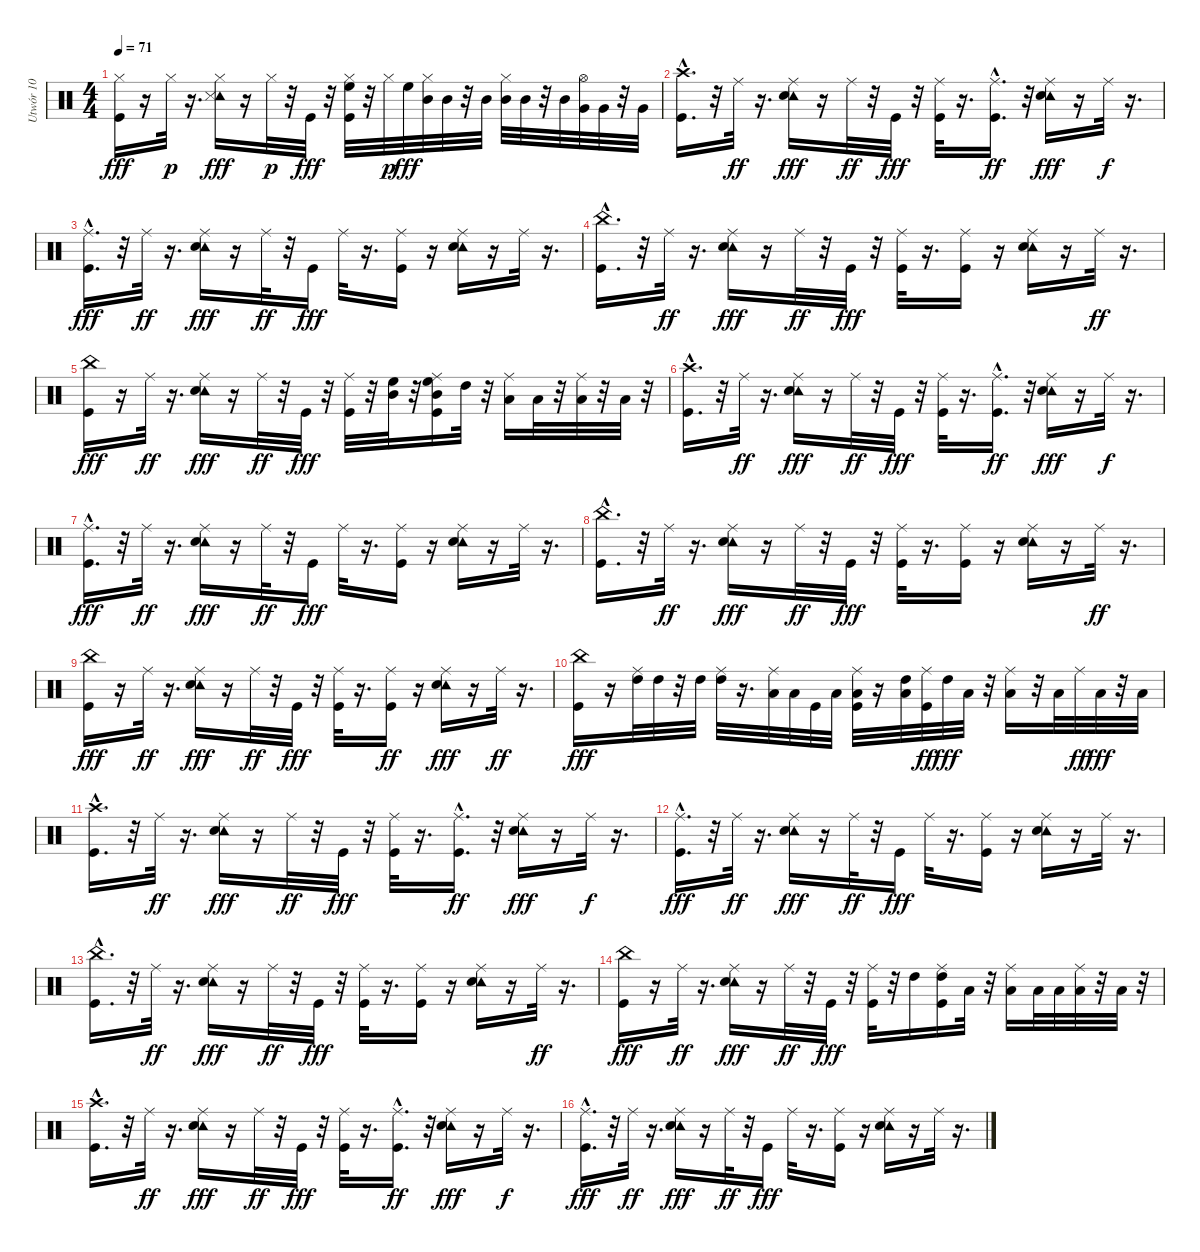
\track ("Utwór 10" "Utwór 10") {instrument percussion}
\staff {score}
\articulation defaults
\ts (4 4)
\tempo 71
\clef neutral
\ks c
("Kick (hit)" "Hi-Hat (closed)").16{dy fff} r.16 "Hi-Hat (closed)".32{dy p} r.16{d} ("Hi-Hat (closed)" "Tambourine (hit)" "Snare (side stick) 3").16{dy fff} r.16 "Hi-Hat (closed)".32{dy p} r.32 "Kick (hit)".32{dy fff} r.32 ("Kick (hit)" "Hi-Hat (closed)" "High Floor Tom (hit)").32 r.32 "Hi-Hat (closed)".32{dy p} "High Floor Tom (hit)".32{dy fff} ("Hi-Hat (closed)" "Mid Tom (hit)").32 "Mid Tom (hit)".32 r.32 "Mid Tom (hit)".32 ("Hi-Hat (closed)" "Mid Tom (hit)").32 "Mid Tom (hit)".32 r.32 "Mid Tom (hit)".32 ("Hi-Hat (open)" "Very Low Tom (hit)").32 "Very Low Tom (hit)".32 r.32 "Very Low Tom (hit)".32 |
("Kick (hit)"{hac} "Crash high (hit)").16{d} r.32 "Ride (middle)".32{dy ff} r.16{d} ("Ride (middle)" "Tambourine (hit)" "Snare (hit) 2").16{dy fff} r.16 "Ride (middle)".32{dy ff} r.32 "Kick (hit)".32{dy fff} r.32 ("Kick (hit)" "Ride (middle)").32 r.16{d} ("Kick (hit)"{hac} "Ride (middle)").16{d dy ff} r.32 ("Ride (middle)" "Tambourine (hit)" "Snare (hit) 2").16{dy fff} r.16 "Ride (middle)".32{dy f} r.16{d} |
("Kick (hit)"{hac} "Ride (middle)").16{d dy fff} r.32 "Ride (middle)".32{dy ff} r.16{d} ("Ride (middle)" "Tambourine (hit)" "Snare (hit) 2").16{dy fff} r.16 "Ride (middle)".32{dy ff} r.32 "Kick (hit)".16{dy fff} "Ride (middle)".32 r.16{d} ("Kick (hit)" "Ride (middle)").16 r.16 ("Ride (middle)" "Tambourine (hit)" "Snare (hit) 2").16 r.16 "Ride (middle)".32 r.16{d} |
("Kick (hit)"{hac} "China (hit)").16{d} r.32 "Ride (middle)".32{dy ff} r.16{d} ("Ride (middle)" "Tambourine (hit)" "Snare (hit) 2").16{dy fff} r.16 "Ride (middle)".32{dy ff} r.32 "Kick (hit)".32{dy fff} r.32 ("Kick (hit)" "Ride (middle)").32 r.16{d} ("Kick (hit)" "Ride (middle)").16 r.16 ("Ride (middle)" "Tambourine (hit)" "Snare (hit) 2").16 r.16 "Ride (middle)".32{dy ff} r.16{d} |
("Kick (hit)" "China (hit)").16{dy fff} r.16 "Ride (middle)".32{dy ff} r.16{d} ("Ride (middle)" "Tambourine (hit)" "Snare (hit) 2").16{dy fff} r.16 "Ride (middle)".32{dy ff} r.32 "Kick (hit)".32{dy fff} r.32 ("Kick (hit)" "Ride (middle)").32 r.32 ("High Floor Tom (hit)" "Mid Tom (hit)").32 r.32 ("Kick (hit)" "Ride (middle)" "High Floor Tom (hit)" "Mid Tom (hit)").16 "High Tom (hit)".32 r.32 ("Ride (middle)" "Low Tom (hit)").16 "Low Tom (hit)".32 r.32 ("Ride (middle)" "Low Tom (hit)").32 r.32 "Low Floor Tom (hit)".32 r.32 |
("Kick (hit)"{hac} "Crash high (hit)").16{d} r.32 "Ride (middle)".32{dy ff} r.16{d} ("Ride (middle)" "Tambourine (hit)" "Snare (hit) 2").16{dy fff} r.16 "Ride (middle)".32{dy ff} r.32 "Kick (hit)".32{dy fff} r.32 ("Kick (hit)" "Ride (middle)").32 r.16{d} ("Kick (hit)"{hac} "Ride (middle)").16{d dy ff} r.32 ("Ride (middle)" "Tambourine (hit)" "Snare (hit) 2").16{dy fff} r.16 "Ride (middle)".32{dy f} r.16{d} |
("Kick (hit)"{hac} "Ride (middle)").16{d dy fff} r.32 "Ride (middle)".32{dy ff} r.16{d} ("Ride (middle)" "Tambourine (hit)" "Snare (hit) 2").16{dy fff} r.16 "Ride (middle)".32{dy ff} r.32 "Kick (hit)".16{dy fff} "Ride (middle)".32 r.16{d} ("Kick (hit)" "Ride (middle)").16 r.16 ("Ride (middle)" "Tambourine (hit)" "Snare (hit) 2").16 r.16 "Ride (middle)".32 r.16{d} |
("Kick (hit)"{hac} "China (hit)").16{d} r.32 "Ride (middle)".32{dy ff} r.16{d} ("Ride (middle)" "Tambourine (hit)" "Snare (hit) 2").16{dy fff} r.16 "Ride (middle)".32{dy ff} r.32 "Kick (hit)".32{dy fff} r.32 ("Kick (hit)" "Ride (middle)").32 r.16{d} ("Kick (hit)" "Ride (middle)").16 r.16 ("Ride (middle)" "Tambourine (hit)" "Snare (hit) 2").16 r.16 "Ride (middle)".32{dy ff} r.16{d} |
("Kick (hit)" "China (hit)").16{dy fff} r.16 "Ride (middle)".32{dy ff} r.16{d} ("Ride (middle)" "Tambourine (hit)" "Snare (hit) 2").16{dy fff} r.16 "Ride (middle)".32{dy ff} r.32 "Kick (hit)".32{dy fff} r.32 ("Kick (hit)" "Ride (middle)").32 r.16{d} ("Kick (hit)" "Ride (middle)").16{dy ff} r.16 ("Ride (middle)" "Tambourine (hit)" "Snare (hit) 2").16{dy fff} r.16 "Ride (middle)".32{dy ff} r.16{d} |
("Kick (hit)" "China (hit)").16{dy fff} r.16 ("Ride (middle)" "High Tom (hit)").32 "High Tom (hit)".32 r.32 "High Tom (hit)".32 ("Ride (middle)" "High Tom (hit)").32 r.16{d} ("Ride (middle)" "Low Tom (hit)").32 "Low Tom (hit)".32 "Kick (hit)".32 "Low Tom (hit)".32 ("Kick (hit)" "Ride (middle)" "Low Tom (hit)").32 r.16 ("High Tom (hit)" "Low Tom (hit)").32 ("Kick (hit)" "Ride (middle)").32{dy ff} "High Tom (hit)".32{dy fff} "Low Tom (hit)".32 r.32 ("Ride (middle)" "Low Tom (hit)").16 r.32 "Low Tom (hit)".32 "Ride (middle)".32{dy ff} "Low Floor Tom (hit)".32{dy fff} r.32 "Low Floor Tom (hit)".32 |
("Kick (hit)"{hac} "Crash high (hit)").16{d} r.32 "Ride (middle)".32{dy ff} r.16{d} ("Ride (middle)" "Tambourine (hit)" "Snare (hit) 2").16{dy fff} r.16 "Ride (middle)".32{dy ff} r.32 "Kick (hit)".32{dy fff} r.32 ("Kick (hit)" "Ride (middle)").32 r.16{d} ("Kick (hit)"{hac} "Ride (middle)").16{d dy ff} r.32 ("Ride (middle)" "Tambourine (hit)" "Snare (hit) 2").16{dy fff} r.16 "Ride (middle)".32{dy f} r.16{d} |
("Kick (hit)"{hac} "Ride (middle)").16{d dy fff} r.32 "Ride (middle)".32{dy ff} r.16{d} ("Ride (middle)" "Tambourine (hit)" "Snare (hit) 2").16{dy fff} r.16 "Ride (middle)".32{dy ff} r.32 "Kick (hit)".16{dy fff} "Ride (middle)".32 r.16{d} ("Kick (hit)" "Ride (middle)").16 r.16 ("Ride (middle)" "Tambourine (hit)" "Snare (hit) 2").16 r.16 "Ride (middle)".32 r.16{d} |
("Kick (hit)"{hac} "China (hit)").16{d} r.32 "Ride (middle)".32{dy ff} r.16{d} ("Ride (middle)" "Tambourine (hit)" "Snare (hit) 2").16{dy fff} r.16 "Ride (middle)".32{dy ff} r.32 "Kick (hit)".32{dy fff} r.32 ("Kick (hit)" "Ride (middle)").32 r.16{d} ("Kick (hit)" "Ride (middle)").16 r.16 ("Ride (middle)" "Tambourine (hit)" "Snare (hit) 2").16 r.16 "Ride (middle)".32{dy ff} r.16{d} |
("Kick (hit)" "China (hit)").16{dy fff} r.16 "Ride (middle)".32{dy ff} r.16{d} ("Ride (middle)" "Tambourine (hit)" "Snare (hit) 2").16{dy fff} r.16 "Ride (middle)".32{dy ff} r.32 "Kick (hit)".32{dy fff} r.32 ("Kick (hit)" "Ride (middle)").32 r.32 "High Tom (hit)".16 ("Kick (hit)" "Ride (middle)" "High Tom (hit)").16 "Low Tom (hit)".32 r.32 ("Ride (middle)" "Low Tom (hit)").16 "Low Tom (hit)".32 "Low Tom (hit)".32 ("Ride (middle)" "Low Floor Tom (hit)").32 r.32 "Low Floor Tom (hit)".32 r.32 |
("Kick (hit)"{hac} "Crash high (hit)").16{d} r.32 "Ride (middle)".32{dy ff} r.16{d} ("Ride (middle)" "Tambourine (hit)" "Snare (hit) 2").16{dy fff} r.16 "Ride (middle)".32{dy ff} r.32 "Kick (hit)".32{dy fff} r.32 ("Kick (hit)" "Ride (middle)").32 r.16{d} ("Kick (hit)"{hac} "Ride (middle)").16{d dy ff} r.32 ("Ride (middle)" "Tambourine (hit)" "Snare (hit) 2").16{dy fff} r.16 "Ride (middle)".32{dy f} r.16{d} |
("Kick (hit)"{hac} "Ride (middle)").16{d dy fff} r.32 "Ride (middle)".32{dy ff} r.16{d} ("Ride (middle)" "Tambourine (hit)" "Snare (hit) 2").16{dy fff} r.16 "Ride (middle)".32{dy ff} r.32 "Kick (hit)".16{dy fff} "Ride (middle)".32 r.16{d} ("Kick (hit)" "Ride (middle)").16 r.16 ("Ride (middle)" "Tambourine (hit)" "Snare (hit) 2").16 r.16 "Ride (middle)".32 r.16{d}
